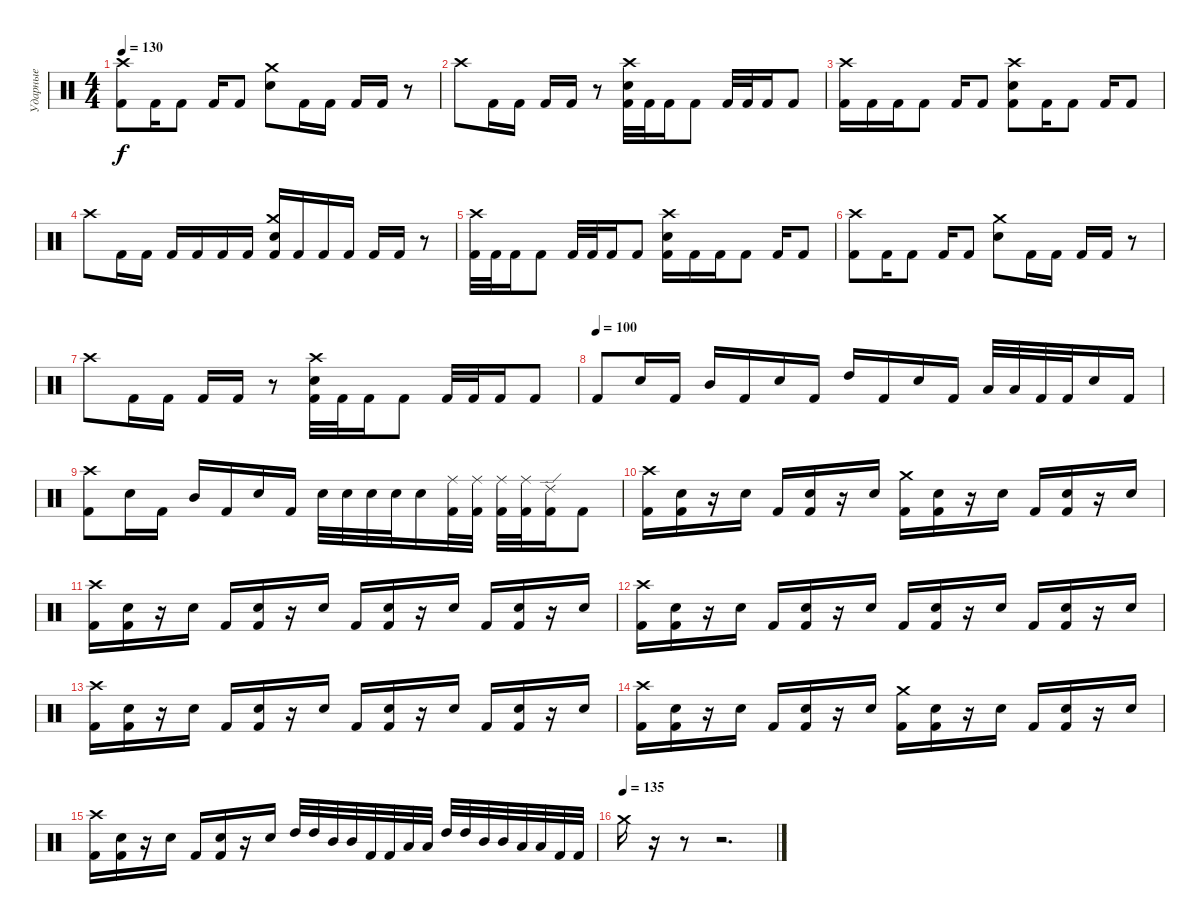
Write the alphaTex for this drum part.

\track ("Ударные" "Ударные") {instrument percussion}
\staff
\articulation defaults
\ts (4 4)
\tempo 130
\clef neutral
\ks c
("Crash high (hit)" "Kick (hit) 2").8{dy f} "Kick (hit) 2".16 "Kick (hit) 2".8 "Kick (hit) 2".16 "Kick (hit) 2".8 ("Crash medium (hit)" "Electric Snare (hit)").8 "Kick (hit) 2".16 "Kick (hit) 2".16 "Kick (hit) 2".16 "Kick (hit) 2".16 r.8 |
"Crash high (hit)".8 "Kick (hit) 2".16 "Kick (hit) 2".16 "Kick (hit) 2".16 "Kick (hit) 2".16 r.8 ("Crash high (hit)" "Electric Snare (hit)" "Kick (hit) 2").32 "Kick (hit) 2".32 "Kick (hit) 2".16 "Kick (hit) 2".8 "Kick (hit) 2".32 "Kick (hit) 2".32 "Kick (hit) 2".16 "Kick (hit) 2".8 |
("Crash high (hit)" "Kick (hit) 2").16 "Kick (hit) 2".16 "Kick (hit) 2".16 "Kick (hit) 2".8 "Kick (hit) 2".16 "Kick (hit) 2".8 ("Crash high (hit)" "Electric Snare (hit)" "Kick (hit) 2").8 "Kick (hit) 2".16 "Kick (hit) 2".8 "Kick (hit) 2".16 "Kick (hit) 2".8 |
"Crash high (hit)".8 "Kick (hit) 2".16 "Kick (hit) 2".16 "Kick (hit) 2".16 "Kick (hit) 2".16 "Kick (hit) 2".16 "Kick (hit) 2".16 ("Crash medium (hit)" "Electric Snare (hit)" "Kick (hit) 2").16 "Kick (hit) 2".16 "Kick (hit) 2".16 "Kick (hit) 2".16 "Kick (hit) 2".16 "Kick (hit) 2".16 r.8 |
("Crash high (hit)" "Kick (hit) 2").32 "Kick (hit) 2".32 "Kick (hit) 2".16 "Kick (hit) 2".8 "Kick (hit) 2".32 "Kick (hit) 2".32 "Kick (hit) 2".16 "Kick (hit) 2".8 ("Crash high (hit)" "Electric Snare (hit)" "Kick (hit) 2").16 "Kick (hit) 2".16 "Kick (hit) 2".16 "Kick (hit) 2".8 "Kick (hit) 2".16 "Kick (hit) 2".8 |
("Crash high (hit)" "Kick (hit) 2").8 "Kick (hit) 2".16 "Kick (hit) 2".8 "Kick (hit) 2".16 "Kick (hit) 2".8 ("Crash medium (hit)" "Electric Snare (hit)").8 "Kick (hit) 2".16 "Kick (hit) 2".16 "Kick (hit) 2".16 "Kick (hit) 2".16 r.8 |
"Crash high (hit)".8 "Kick (hit) 2".16 "Kick (hit) 2".16 "Kick (hit) 2".16 "Kick (hit) 2".16 r.8 ("Crash high (hit)" "Electric Snare (hit)" "Kick (hit) 2").32 "Kick (hit) 2".32 "Kick (hit) 2".16 "Kick (hit) 2".8 "Kick (hit) 2".32 "Kick (hit) 2".32 "Kick (hit) 2".16 "Kick (hit) 2".8 |
\tempo (100)
"Kick (hit) 2".8 "Electric Snare (hit)".16 "Kick (hit) 2".16 "Mid Tom (hit)".16 "Kick (hit) 2".16 "Electric Snare (hit)".16 "Kick (hit) 2".16 "High Tom (hit)".16 "Kick (hit) 2".16 "Electric Snare (hit)".16 "Kick (hit) 2".16 "Low Tom (hit)".32 "Low Tom (hit)".32 "Kick (hit) 2".32 "Kick (hit) 2".32 "Electric Snare (hit)".16 "Kick (hit) 2".16 |
("Crash high (hit)" "Kick (hit) 2").8 "Electric Snare (hit)".16 "Kick (hit) 2".16 "Mid Tom (hit)".16 "Kick (hit) 2".16 "Electric Snare (hit)".16 "Kick (hit) 2".16 "Electric Snare (hit)".32 "Electric Snare (hit)".32 "Electric Snare (hit)".32 "Electric Snare (hit)".32 "Electric Snare (hit)".16 ("Ride (middle)" "Kick (hit) 2").32 ("Ride (middle)" "Kick (hit) 2").32 ("Ride (middle)" "Kick (hit) 2").32 ("Ride (middle)" "Kick (hit) 2").32 ("Ride (edge) 2" "Kick (hit) 2").16 "Kick (hit) 2".8 |
("Crash high (hit)" "Kick (hit) 2").16 ("Electric Snare (hit)" "Kick (hit) 2").16 r.16 "Electric Snare (hit)".16 "Kick (hit) 2".16 ("Electric Snare (hit)" "Kick (hit) 2").16 r.16 "Electric Snare (hit)".16 ("Crash medium (hit)" "Kick (hit) 2").16 ("Electric Snare (hit)" "Kick (hit) 2").16 r.16 "Electric Snare (hit)".16 "Kick (hit) 2".16 ("Electric Snare (hit)" "Kick (hit) 2").16 r.16 "Electric Snare (hit)".16 |
("Crash high (hit)" "Kick (hit) 2").16 ("Electric Snare (hit)" "Kick (hit) 2").16 r.16 "Electric Snare (hit)".16 "Kick (hit) 2".16 ("Electric Snare (hit)" "Kick (hit) 2").16 r.16 "Electric Snare (hit)".16 "Kick (hit) 2".16 ("Electric Snare (hit)" "Kick (hit) 2").16 r.16 "Electric Snare (hit)".16 "Kick (hit) 2".16 ("Electric Snare (hit)" "Kick (hit) 2").16 r.16 "Electric Snare (hit)".16 |
("Crash high (hit)" "Kick (hit) 2").16 ("Electric Snare (hit)" "Kick (hit) 2").16 r.16 "Electric Snare (hit)".16 "Kick (hit) 2".16 ("Electric Snare (hit)" "Kick (hit) 2").16 r.16 "Electric Snare (hit)".16 "Kick (hit) 2".16 ("Electric Snare (hit)" "Kick (hit) 2").16 r.16 "Electric Snare (hit)".16 "Kick (hit) 2".16 ("Electric Snare (hit)" "Kick (hit) 2").16 r.16 "Electric Snare (hit)".16 |
("Crash high (hit)" "Kick (hit) 2").16 ("Electric Snare (hit)" "Kick (hit) 2").16 r.16 "Electric Snare (hit)".16 "Kick (hit) 2".16 ("Electric Snare (hit)" "Kick (hit) 2").16 r.16 "Electric Snare (hit)".16 "Kick (hit) 2".16 ("Electric Snare (hit)" "Kick (hit) 2").16 r.16 "Electric Snare (hit)".16 "Kick (hit) 2".16 ("Electric Snare (hit)" "Kick (hit) 2").16 r.16 "Electric Snare (hit)".16 |
("Crash high (hit)" "Kick (hit) 2").16 ("Electric Snare (hit)" "Kick (hit) 2").16 r.16 "Electric Snare (hit)".16 "Kick (hit) 2".16 ("Electric Snare (hit)" "Kick (hit) 2").16 r.16 "Electric Snare (hit)".16 ("Crash medium (hit)" "Kick (hit) 2").16 ("Electric Snare (hit)" "Kick (hit) 2").16 r.16 "Electric Snare (hit)".16 "Kick (hit) 2".16 ("Electric Snare (hit)" "Kick (hit) 2").16 r.16 "Electric Snare (hit)".16 |
("Crash high (hit)" "Kick (hit) 2").16 ("Electric Snare (hit)" "Kick (hit) 2").16 r.16 "Electric Snare (hit)".16 "Kick (hit) 2".16 ("Electric Snare (hit)" "Kick (hit) 2").16 r.16 "Electric Snare (hit)".16 "High Tom (hit)".32 "High Tom (hit)".32 "Mid Tom (hit)".32 "Mid Tom (hit)".32 "Kick (hit) 2".32 "Kick (hit) 2".32 "Low Tom (hit)".32 "Low Tom (hit)".32 "High Tom (hit)".32 "High Tom (hit)".32 "Mid Tom (hit)".32 "Mid Tom (hit)".32 "Low Tom (hit)".32 "Low Tom (hit)".32 "Kick (hit) 2".32 "Kick (hit) 2".32 |
\tempo (135)
"Crash medium (hit)".16 r.16 r.8 r.2{d}
